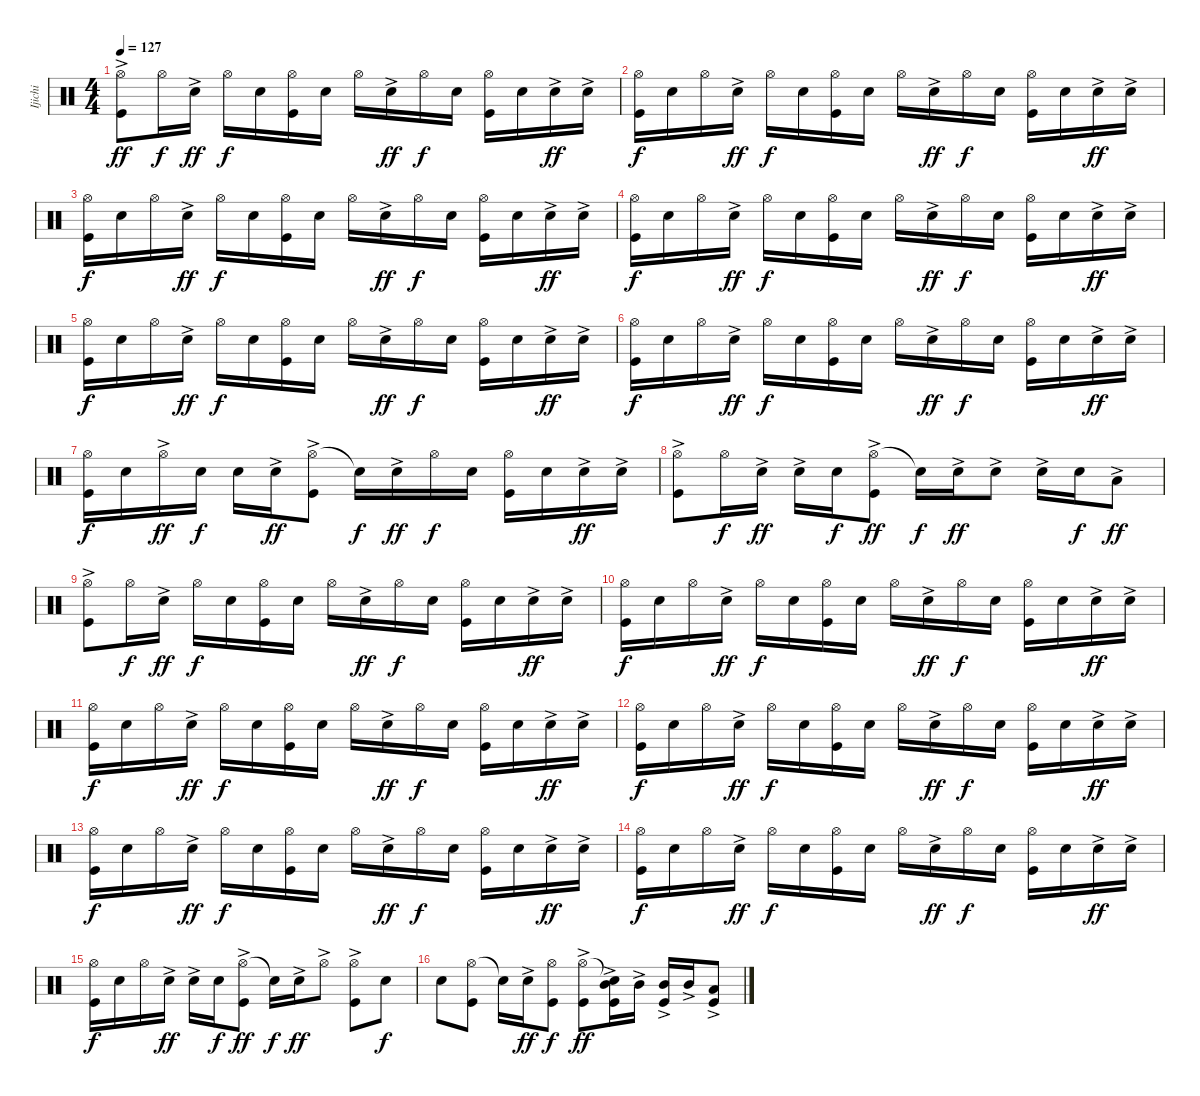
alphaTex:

\track ("Ijichi" "Ijichi") {instrument percussion}
\staff {score}
\articulation defaults
\ts (4 4)
\tempo 127
\clef neutral
\ks c
("Hi-Hat (open)"{ac} "Kick (hit)").8{dy ff} "Hi-Hat (open)".16{dy f} "Electric Snare (hit)"{ac}.16{dy ff} "Hi-Hat (open)".16{dy f} "Electric Snare (hit)".16 ("Hi-Hat (open)" "Kick (hit)").16 "Electric Snare (hit)".16 "Hi-Hat (open)".16 "Electric Snare (hit)"{ac}.16{dy ff} "Hi-Hat (open)".16{dy f} "Electric Snare (hit)".16 ("Hi-Hat (open)" "Kick (hit)").16 "Electric Snare (hit)".16 "Electric Snare (hit)"{ac}.16{dy ff} "Electric Snare (hit)"{ac}.16 |
("Hi-Hat (open)" "Kick (hit)").16{dy f} "Electric Snare (hit)".16 "Hi-Hat (open)".16 "Electric Snare (hit)"{ac}.16{dy ff} "Hi-Hat (open)".16{dy f} "Electric Snare (hit)".16 ("Hi-Hat (open)" "Kick (hit)").16 "Electric Snare (hit)".16 "Hi-Hat (open)".16 "Electric Snare (hit)"{ac}.16{dy ff} "Hi-Hat (open)".16{dy f} "Electric Snare (hit)".16 ("Hi-Hat (open)" "Kick (hit)").16 "Electric Snare (hit)".16 "Electric Snare (hit)"{ac}.16{dy ff} "Electric Snare (hit)"{ac}.16 |
("Hi-Hat (open)" "Kick (hit)").16{dy f} "Electric Snare (hit)".16 "Hi-Hat (open)".16 "Electric Snare (hit)"{ac}.16{dy ff} "Hi-Hat (open)".16{dy f} "Electric Snare (hit)".16 ("Hi-Hat (open)" "Kick (hit)").16 "Electric Snare (hit)".16 "Hi-Hat (open)".16 "Electric Snare (hit)"{ac}.16{dy ff} "Hi-Hat (open)".16{dy f} "Electric Snare (hit)".16 ("Hi-Hat (open)" "Kick (hit)").16 "Electric Snare (hit)".16 "Electric Snare (hit)"{ac}.16{dy ff} "Electric Snare (hit)"{ac}.16 |
("Hi-Hat (open)" "Kick (hit)").16{dy f} "Electric Snare (hit)".16 "Hi-Hat (open)".16 "Electric Snare (hit)"{ac}.16{dy ff} "Hi-Hat (open)".16{dy f} "Electric Snare (hit)".16 ("Hi-Hat (open)" "Kick (hit)").16 "Electric Snare (hit)".16 "Hi-Hat (open)".16 "Electric Snare (hit)"{ac}.16{dy ff} "Hi-Hat (open)".16{dy f} "Electric Snare (hit)".16 ("Hi-Hat (open)" "Kick (hit)").16 "Electric Snare (hit)".16 "Electric Snare (hit)"{ac}.16{dy ff} "Electric Snare (hit)"{ac}.16 |
("Hi-Hat (open)" "Kick (hit)").16{dy f} "Electric Snare (hit)".16 "Hi-Hat (open)".16 "Electric Snare (hit)"{ac}.16{dy ff} "Hi-Hat (open)".16{dy f} "Electric Snare (hit)".16 ("Hi-Hat (open)" "Kick (hit)").16 "Electric Snare (hit)".16 "Hi-Hat (open)".16 "Electric Snare (hit)"{ac}.16{dy ff} "Hi-Hat (open)".16{dy f} "Electric Snare (hit)".16 ("Hi-Hat (open)" "Kick (hit)").16 "Electric Snare (hit)".16 "Electric Snare (hit)"{ac}.16{dy ff} "Electric Snare (hit)"{ac}.16 |
("Hi-Hat (open)" "Kick (hit)").16{dy f} "Electric Snare (hit)".16 "Hi-Hat (open)".16 "Electric Snare (hit)"{ac}.16{dy ff} "Hi-Hat (open)".16{dy f} "Electric Snare (hit)".16 ("Hi-Hat (open)" "Kick (hit)").16 "Electric Snare (hit)".16 "Hi-Hat (open)".16 "Electric Snare (hit)"{ac}.16{dy ff} "Hi-Hat (open)".16{dy f} "Electric Snare (hit)".16 ("Hi-Hat (open)" "Kick (hit)").16 "Electric Snare (hit)".16 "Electric Snare (hit)"{ac}.16{dy ff} "Electric Snare (hit)"{ac}.16 |
("Hi-Hat (open)" "Kick (hit)").16{dy f} "Electric Snare (hit)".16 "Hi-Hat (open)"{ac}.16{dy ff} "Electric Snare (hit)".16{dy f} "Electric Snare (hit)".16 "Electric Snare (hit)"{ac}.16{dy ff} ("Hi-Hat (open)"{ac} "Kick (hit)").8 "Snare (hit)"{t}.16{dy f} "Electric Snare (hit)"{ac}.16{dy ff} "Hi-Hat (open)".16{dy f} "Electric Snare (hit)".16 ("Hi-Hat (open)" "Kick (hit)").16 "Electric Snare (hit)".16 "Electric Snare (hit)"{ac}.16{dy ff} "Electric Snare (hit)"{ac}.16 |
("Hi-Hat (open)"{ac} "Kick (hit)").8 "Hi-Hat (open)".16{dy f} "Electric Snare (hit)"{ac}.16{dy ff} "Electric Snare (hit)"{ac}.16 "Electric Snare (hit)".16{dy f} ("Hi-Hat (open)"{ac} "Kick (hit)").8{dy ff} "Snare (hit)"{t}.16{dy f} "Electric Snare (hit)"{ac}.16{dy ff} "Electric Snare (hit)"{ac}.8 "Electric Snare (hit)"{ac}.16 "Electric Snare (hit)".16{dy f} "Low Tom (hit)"{ac}.8{dy ff} |
("Hi-Hat (open)"{ac} "Kick (hit)").8 "Hi-Hat (open)".16{dy f} "Electric Snare (hit)"{ac}.16{dy ff} "Hi-Hat (open)".16{dy f} "Electric Snare (hit)".16 ("Hi-Hat (open)" "Kick (hit)").16 "Electric Snare (hit)".16 "Hi-Hat (open)".16 "Electric Snare (hit)"{ac}.16{dy ff} "Hi-Hat (open)".16{dy f} "Electric Snare (hit)".16 ("Hi-Hat (open)" "Kick (hit)").16 "Electric Snare (hit)".16 "Electric Snare (hit)"{ac}.16{dy ff} "Electric Snare (hit)"{ac}.16 |
("Hi-Hat (open)" "Kick (hit)").16{dy f} "Electric Snare (hit)".16 "Hi-Hat (open)".16 "Electric Snare (hit)"{ac}.16{dy ff} "Hi-Hat (open)".16{dy f} "Electric Snare (hit)".16 ("Hi-Hat (open)" "Kick (hit)").16 "Electric Snare (hit)".16 "Hi-Hat (open)".16 "Electric Snare (hit)"{ac}.16{dy ff} "Hi-Hat (open)".16{dy f} "Electric Snare (hit)".16 ("Hi-Hat (open)" "Kick (hit)").16 "Electric Snare (hit)".16 "Electric Snare (hit)"{ac}.16{dy ff} "Electric Snare (hit)"{ac}.16 |
("Hi-Hat (open)" "Kick (hit)").16{dy f} "Electric Snare (hit)".16 "Hi-Hat (open)".16 "Electric Snare (hit)"{ac}.16{dy ff} "Hi-Hat (open)".16{dy f} "Electric Snare (hit)".16 ("Hi-Hat (open)" "Kick (hit)").16 "Electric Snare (hit)".16 "Hi-Hat (open)".16 "Electric Snare (hit)"{ac}.16{dy ff} "Hi-Hat (open)".16{dy f} "Electric Snare (hit)".16 ("Hi-Hat (open)" "Kick (hit)").16 "Electric Snare (hit)".16 "Electric Snare (hit)"{ac}.16{dy ff} "Electric Snare (hit)"{ac}.16 |
("Hi-Hat (open)" "Kick (hit)").16{dy f} "Electric Snare (hit)".16 "Hi-Hat (open)".16 "Electric Snare (hit)"{ac}.16{dy ff} "Hi-Hat (open)".16{dy f} "Electric Snare (hit)".16 ("Hi-Hat (open)" "Kick (hit)").16 "Electric Snare (hit)".16 "Hi-Hat (open)".16 "Electric Snare (hit)"{ac}.16{dy ff} "Hi-Hat (open)".16{dy f} "Electric Snare (hit)".16 ("Hi-Hat (open)" "Kick (hit)").16 "Electric Snare (hit)".16 "Electric Snare (hit)"{ac}.16{dy ff} "Electric Snare (hit)"{ac}.16 |
("Hi-Hat (open)" "Kick (hit)").16{dy f} "Electric Snare (hit)".16 "Hi-Hat (open)".16 "Electric Snare (hit)"{ac}.16{dy ff} "Hi-Hat (open)".16{dy f} "Electric Snare (hit)".16 ("Hi-Hat (open)" "Kick (hit)").16 "Electric Snare (hit)".16 "Hi-Hat (open)".16 "Electric Snare (hit)"{ac}.16{dy ff} "Hi-Hat (open)".16{dy f} "Electric Snare (hit)".16 ("Hi-Hat (open)" "Kick (hit)").16 "Electric Snare (hit)".16 "Electric Snare (hit)"{ac}.16{dy ff} "Electric Snare (hit)"{ac}.16 |
("Hi-Hat (open)" "Kick (hit)").16{dy f} "Electric Snare (hit)".16 "Hi-Hat (open)".16 "Electric Snare (hit)"{ac}.16{dy ff} "Hi-Hat (open)".16{dy f} "Electric Snare (hit)".16 ("Hi-Hat (open)" "Kick (hit)").16 "Electric Snare (hit)".16 "Hi-Hat (open)".16 "Electric Snare (hit)"{ac}.16{dy ff} "Hi-Hat (open)".16{dy f} "Electric Snare (hit)".16 ("Hi-Hat (open)" "Kick (hit)").16 "Electric Snare (hit)".16 "Electric Snare (hit)"{ac}.16{dy ff} "Electric Snare (hit)"{ac}.16 |
("Hi-Hat (open)" "Kick (hit)").16{dy f} "Electric Snare (hit)".16 "Hi-Hat (open)".16 "Electric Snare (hit)"{ac}.16{dy ff} "Electric Snare (hit)"{ac}.16 "Electric Snare (hit)".16{dy f} ("Hi-Hat (open)"{ac} "Kick (hit)").8{dy ff} "Snare (hit)"{t}.16{dy f} "Electric Snare (hit)"{ac}.16{dy ff} "Hi-Hat (open)"{ac}.8 ("Hi-Hat (open)"{ac} "Kick (hit)").8 "Electric Snare (hit)".8{dy f} |
"Electric Snare (hit)".8 ("Hi-Hat (open)" "Kick (hit)").8 "Snare (hit)"{t}.16 "Electric Snare (hit)"{ac}.16{dy ff} ("Hi-Hat (open)" "Kick (hit)").8{dy f} ("Hi-Hat (open)"{ac} "Kick (hit)").8{dy ff} ("Snare (hit)"{t} "Mid Tom (hit)"{ac} "Kick (hit)").16 "Mid Tom (hit)"{ac}.16 ("Mid Tom (hit)"{ac} "Kick (hit)").16 "Mid Tom (hit)"{ac}.16 ("Low Tom (hit)"{ac} "Kick (hit)").8
